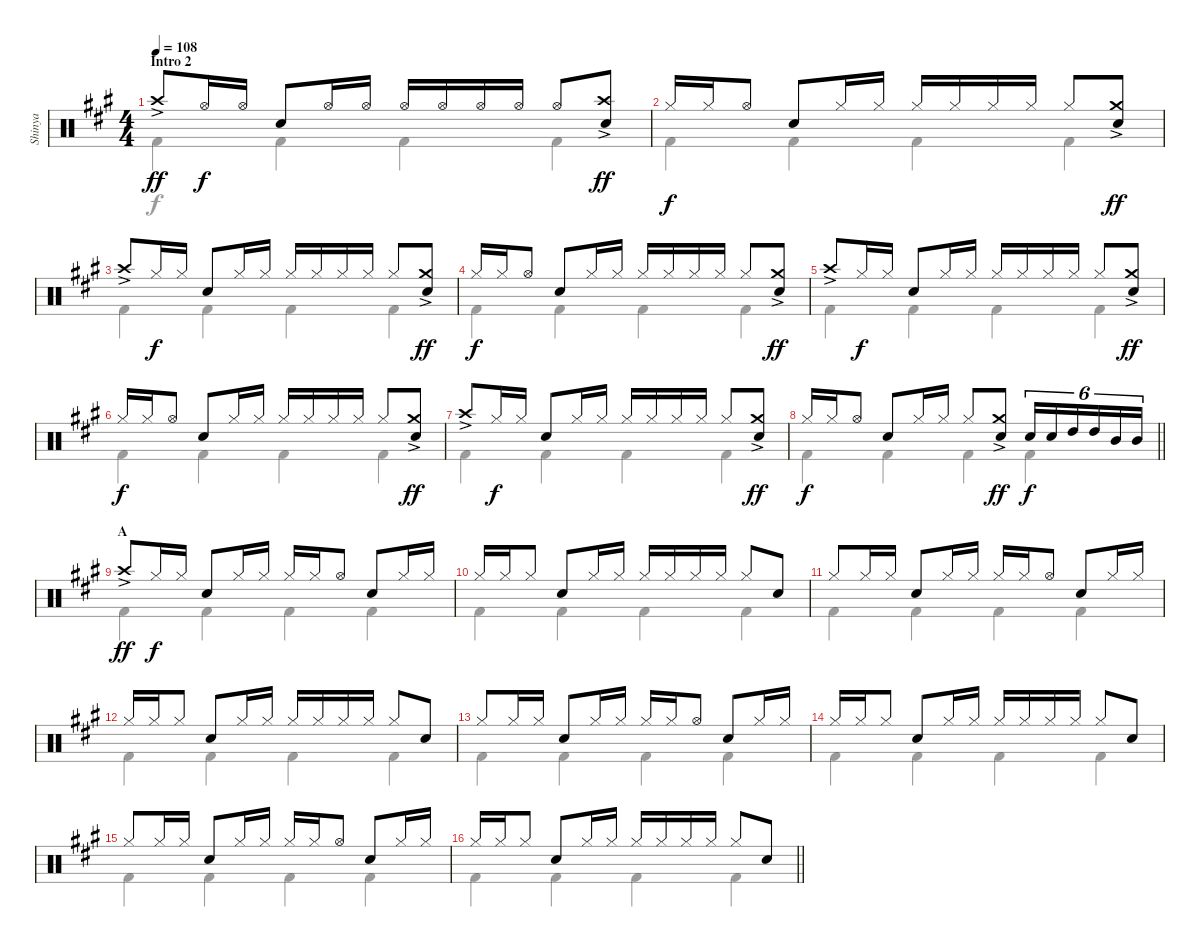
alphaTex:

\track ("Shinya" "Shinya") {instrument percussion}
\staff {score}
\articulation defaults
\voice
\ts (4 4)
\section ("" "Intro 2")
\tempo 108
\clef neutral
\ks f#minor "Crash high (hit)"{ac}.8{dy ff} "Hi-Hat (open)".16{dy f} "Hi-Hat (open)".16 "Snare (hit) 2".8 "Hi-Hat (open)".16 "Hi-Hat (open)".16 "Hi-Hat (open)".16 "Hi-Hat (open)".16 "Hi-Hat (open)".16 "Hi-Hat (open)".16 "Hi-Hat (open)".8
("Crash high (hit)"{ac} "Snare (hit) 2").8{dy ff} |
"Hi-Hat (closed)".16{dy f} "Hi-Hat (closed)".16 "Hi-Hat (open)".8 "Snare (hit) 2".8 "Hi-Hat (closed)".16 "Hi-Hat (closed)".16 "Hi-Hat (closed)".16 "Hi-Hat (closed)".16 "Hi-Hat (closed)".16 "Hi-Hat (closed)".16 "Hi-Hat (closed)".8 ("Crash medium (hit)"{ac} "Snare (hit) 2").8{dy ff} |
"Crash high (hit)"{ac}.8 "Hi-Hat (closed)".16{dy f} "Hi-Hat (closed)".16 "Snare (hit) 2".8 "Hi-Hat (closed)".16 "Hi-Hat (closed)".16 "Hi-Hat (closed)".16 "Hi-Hat (closed)".16 "Hi-Hat (closed)".16 "Hi-Hat (closed)".16 "Hi-Hat (closed)".8 ("Crash medium (hit)"{ac} "Snare (hit) 2").8{dy ff} |
"Hi-Hat (closed)".16{dy f} "Hi-Hat (closed)".16 "Hi-Hat (open)".8 "Snare (hit) 2".8 "Hi-Hat (closed)".16 "Hi-Hat (closed)".16 "Hi-Hat (closed)".16 "Hi-Hat (closed)".16 "Hi-Hat (closed)".16 "Hi-Hat (closed)".16 "Hi-Hat (closed)".8 ("Crash medium (hit)"{ac} "Snare (hit) 2").8{dy ff} |
"Crash high (hit)"{ac}.8 "Hi-Hat (closed)".16{dy f} "Hi-Hat (closed)".16 "Snare (hit) 2".8 "Hi-Hat (closed)".16 "Hi-Hat (closed)".16 "Hi-Hat (closed)".16 "Hi-Hat (closed)".16 "Hi-Hat (closed)".16 "Hi-Hat (closed)".16 "Hi-Hat (closed)".8 ("Crash medium (hit)"{ac} "Snare (hit) 2").8{dy ff} |
"Hi-Hat (closed)".16{dy f} "Hi-Hat (closed)".16 "Hi-Hat (open)".8 "Snare (hit) 2".8 "Hi-Hat (closed)".16 "Hi-Hat (closed)".16 "Hi-Hat (closed)".16 "Hi-Hat (closed)".16 "Hi-Hat (closed)".16 "Hi-Hat (closed)".16 "Hi-Hat (closed)".8 ("Crash medium (hit)"{ac} "Snare (hit) 2").8{dy ff} |
"Crash high (hit)"{ac}.8 "Hi-Hat (closed)".16{dy f} "Hi-Hat (closed)".16 "Snare (hit) 2".8 "Hi-Hat (closed)".16 "Hi-Hat (closed)".16 "Hi-Hat (closed)".16 "Hi-Hat (closed)".16 "Hi-Hat (closed)".16 "Hi-Hat (closed)".16 "Hi-Hat (closed)".8 ("Crash medium (hit)"{ac} "Snare (hit) 2").8{dy ff} |
\barLineRight lightlight "Hi-Hat (closed)".16{dy f} "Hi-Hat (closed)".16 "Hi-Hat (open)".8 "Snare (hit) 2".8 "Hi-Hat (closed)".16 "Hi-Hat (closed)".16 "Hi-Hat (closed)".8
("Crash medium (hit)"{ac} "Snare (hit) 2").8{dy ff} "Snare (hit) 2".16{tu (6 4) dy f} "Snare (hit) 2".16{tu (6 4)} "High Tom (hit)".16{tu (6 4)} "High Tom (hit)".16{tu (6 4)} "Mid Tom (hit)".16{tu (6 4)} "Mid Tom (hit)".16{tu (6 4)} |
\section ("" "A")
"Crash high (hit)"{ac}.8{dy ff} "Hi-Hat (closed)".16{dy f} "Hi-Hat (closed)".16 "Snare (hit) 2".8 "Hi-Hat (closed)".16 "Hi-Hat (closed)".16 "Hi-Hat (closed)".16 "Hi-Hat (closed)".16 "Hi-Hat (open)".8 "Snare (hit) 2".8 "Hi-Hat (closed)".16 "Hi-Hat (closed)".16 |
"Hi-Hat (closed)".16 "Hi-Hat (closed)".16 "Hi-Hat (closed)".8 "Snare (hit) 2".8 "Hi-Hat (closed)".16 "Hi-Hat (closed)".16 "Hi-Hat (closed)".16 "Hi-Hat (closed)".16 "Hi-Hat (closed)".16 "Hi-Hat (closed)".16 "Hi-Hat (closed)".8 "Snare (hit) 2".8 |
"Hi-Hat (closed)".8 "Hi-Hat (closed)".16 "Hi-Hat (closed)".16 "Snare (hit) 2".8 "Hi-Hat (closed)".16 "Hi-Hat (closed)".16 "Hi-Hat (closed)".16 "Hi-Hat (closed)".16 "Hi-Hat (open)".8 "Snare (hit) 2".8 "Hi-Hat (closed)".16 "Hi-Hat (closed)".16 |
"Hi-Hat (closed)".16 "Hi-Hat (closed)".16 "Hi-Hat (closed)".8 "Snare (hit) 2".8 "Hi-Hat (closed)".16 "Hi-Hat (closed)".16 "Hi-Hat (closed)".16 "Hi-Hat (closed)".16 "Hi-Hat (closed)".16 "Hi-Hat (closed)".16 "Hi-Hat (closed)".8 "Snare (hit) 2".8 |
"Hi-Hat (closed)".8 "Hi-Hat (closed)".16 "Hi-Hat (closed)".16 "Snare (hit) 2".8 "Hi-Hat (closed)".16 "Hi-Hat (closed)".16 "Hi-Hat (closed)".16 "Hi-Hat (closed)".16 "Hi-Hat (open)".8 "Snare (hit) 2".8 "Hi-Hat (closed)".16 "Hi-Hat (closed)".16 |
"Hi-Hat (closed)".16 "Hi-Hat (closed)".16 "Hi-Hat (closed)".8 "Snare (hit) 2".8 "Hi-Hat (closed)".16 "Hi-Hat (closed)".16 "Hi-Hat (closed)".16 "Hi-Hat (closed)".16 "Hi-Hat (closed)".16 "Hi-Hat (closed)".16 "Hi-Hat (closed)".8 "Snare (hit) 2".8 |
"Hi-Hat (closed)".8 "Hi-Hat (closed)".16 "Hi-Hat (closed)".16 "Snare (hit) 2".8 "Hi-Hat (closed)".16 "Hi-Hat (closed)".16 "Hi-Hat (closed)".16 "Hi-Hat (closed)".16 "Hi-Hat (open)".8 "Snare (hit) 2".8 "Hi-Hat (closed)".16 "Hi-Hat (closed)".16 |
\barLineRight lightlight "Hi-Hat (closed)".16 "Hi-Hat (closed)".16 "Hi-Hat (closed)".8 "Snare (hit) 2".8 "Hi-Hat (closed)".16 "Hi-Hat (closed)".16 "Hi-Hat (closed)".16 "Hi-Hat (closed)".16 "Hi-Hat (closed)".16 "Hi-Hat (closed)".16 "Hi-Hat (closed)".8 "Snare (hit) 2".8
\voice
\clef neutral
\ottava regular
\simile none
\ks f#minor "Kick (hit) 2".4{dy f} "Kick (hit) 2".4 "Kick (hit) 2".4 "Kick (hit) 2".4
|
"Kick (hit) 2".4 "Kick (hit) 2".4 "Kick (hit) 2".4 "Kick (hit) 2".4 |
"Kick (hit) 2".4 "Kick (hit) 2".4 "Kick (hit) 2".4 "Kick (hit) 2".4 |
"Kick (hit) 2".4 "Kick (hit) 2".4 "Kick (hit) 2".4 "Kick (hit) 2".4 |
"Kick (hit) 2".4 "Kick (hit) 2".4 "Kick (hit) 2".4 "Kick (hit) 2".4 |
"Kick (hit) 2".4 "Kick (hit) 2".4 "Kick (hit) 2".4 "Kick (hit) 2".4 |
"Kick (hit) 2".4 "Kick (hit) 2".4 "Kick (hit) 2".4 "Kick (hit) 2".4 |
\barLineRight lightlight "Kick (hit) 2".4 "Kick (hit) 2".4 "Kick (hit) 2".4 "Kick (hit) 2".4
|
"Kick (hit) 2".4 "Kick (hit) 2".4 "Kick (hit) 2".4 "Kick (hit) 2".4 |
"Kick (hit) 2".4 "Kick (hit) 2".4 "Kick (hit) 2".4 "Kick (hit) 2".4 |
"Kick (hit) 2".4 "Kick (hit) 2".4 "Kick (hit) 2".4 "Kick (hit) 2".4 |
"Kick (hit) 2".4 "Kick (hit) 2".4 "Kick (hit) 2".4 "Kick (hit) 2".4 |
"Kick (hit) 2".4 "Kick (hit) 2".4 "Kick (hit) 2".4 "Kick (hit) 2".4 |
"Kick (hit) 2".4 "Kick (hit) 2".4 "Kick (hit) 2".4 "Kick (hit) 2".4 |
"Kick (hit) 2".4 "Kick (hit) 2".4 "Kick (hit) 2".4 "Kick (hit) 2".4 |
\barLineRight lightlight "Kick (hit) 2".4 "Kick (hit) 2".4 "Kick (hit) 2".4 "Kick (hit) 2".4
